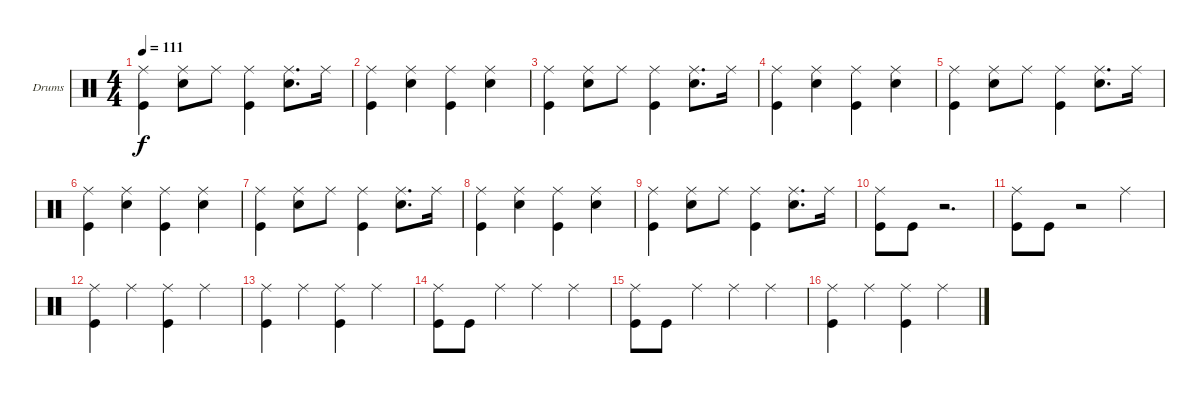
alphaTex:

\bracketExtendMode groupsimilarinstruments
\firstSystemTrackNameOrientation horizontal
\otherSystemsTrackNameOrientation horizontal
\track ("Drumkit" "Drums") {instrument percussion}
\staff {score}
\articulation defaults
\ts (4 4)
\tempo 111
\clef neutral
\ks c
("Ride (middle)" "Kick (hit)").4{dy f} ("Ride (middle)" "Snare (hit) 2").8 "Ride (middle)".8 ("Ride (middle)" "Kick (hit)").4 ("Ride (middle)" "Snare (hit) 2").8{d} "Ride (middle)".16 |
("Ride (middle)" "Kick (hit)").4 ("Ride (middle)" "Snare (hit) 2").4 ("Ride (middle)" "Kick (hit)").4 ("Ride (middle)" "Snare (hit) 2").4 |
("Ride (middle)" "Kick (hit)").4 ("Ride (middle)" "Snare (hit) 2").8 "Ride (middle)".8 ("Ride (middle)" "Kick (hit)").4 ("Ride (middle)" "Snare (hit) 2").8{d} "Ride (middle)".16 |
("Ride (middle)" "Kick (hit)").4 ("Ride (middle)" "Snare (hit) 2").4 ("Ride (middle)" "Kick (hit)").4 ("Ride (middle)" "Snare (hit) 2").4 |
("Ride (middle)" "Kick (hit)").4 ("Ride (middle)" "Snare (hit) 2").8 "Ride (middle)".8 ("Ride (middle)" "Kick (hit)").4 ("Ride (middle)" "Snare (hit) 2").8{d} "Ride (middle)".16 |
("Ride (middle)" "Kick (hit)").4 ("Ride (middle)" "Snare (hit) 2").4 ("Ride (middle)" "Kick (hit)").4 ("Ride (middle)" "Snare (hit) 2").4 |
("Ride (middle)" "Kick (hit)").4 ("Ride (middle)" "Snare (hit) 2").8 "Ride (middle)".8 ("Ride (middle)" "Kick (hit)").4 ("Ride (middle)" "Snare (hit) 2").8{d} "Ride (middle)".16 |
("Ride (middle)" "Kick (hit)").4 ("Ride (middle)" "Snare (hit) 2").4 ("Ride (middle)" "Kick (hit)").4 ("Ride (middle)" "Snare (hit) 2").4 |
("Ride (middle)" "Kick (hit)").4 ("Ride (middle)" "Snare (hit) 2").8 "Ride (middle)".8 ("Ride (middle)" "Kick (hit)").4 ("Ride (middle)" "Snare (hit) 2").8{d} "Ride (middle)".16 |
("Ride (middle)" "Kick (hit)").8 "Kick (hit)".8 r.2{d} |
("Ride (middle)" "Kick (hit)").8 "Kick (hit)".8 r.2 "Ride (middle)".4 |
("Ride (middle)" "Kick (hit)").4 "Ride (middle)".4 ("Ride (middle)" "Kick (hit)").4 "Ride (middle)".4 |
("Ride (middle)" "Kick (hit)").4 "Ride (middle)".4 ("Ride (middle)" "Kick (hit)").4 "Ride (middle)".4 |
("Ride (middle)" "Kick (hit)").8 "Kick (hit)".8 "Ride (middle)".4 "Ride (middle)".4 "Ride (middle)".4 |
("Ride (middle)" "Kick (hit)").8 "Kick (hit)".8 "Ride (middle)".4 "Ride (middle)".4 "Ride (middle)".4 |
("Ride (middle)" "Kick (hit)").4 "Ride (middle)".4 ("Ride (middle)" "Kick (hit)").4 "Ride (middle)".4
